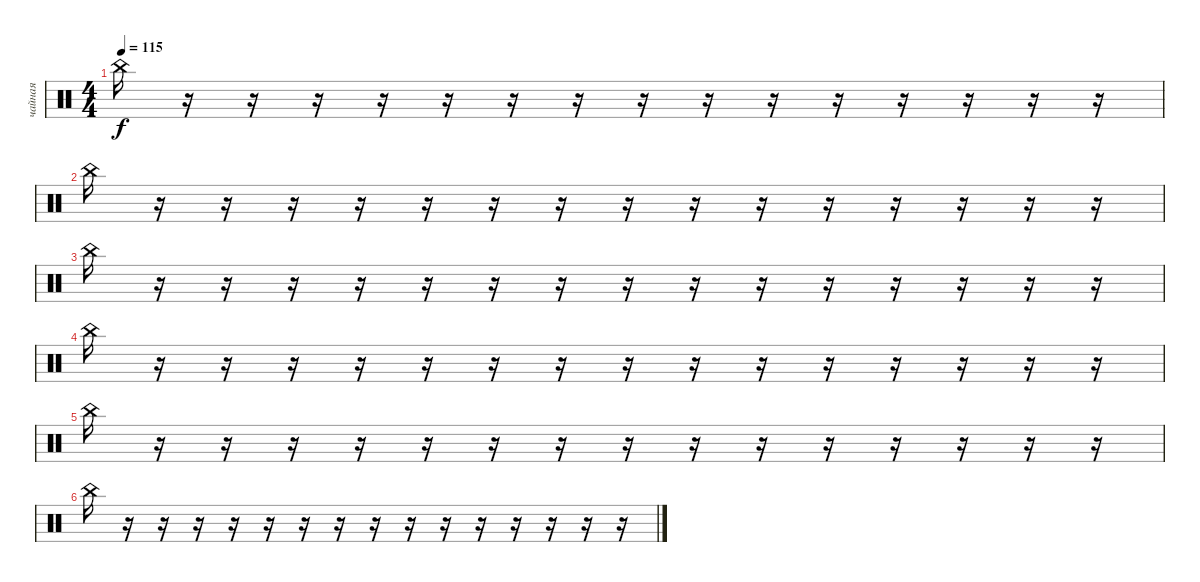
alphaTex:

\track ("чайная" "чайная") {mute instrument percussion}
\staff {score}
\articulation defaults
\ts (4 4)
\tempo 115
\clef neutral
\ks c "China (hit)".16{dy f}
r.16 r.16 r.16 r.16 r.16 r.16 r.16 r.16 r.16 r.16 r.16 r.16 r.16 r.16 r.16 |
"China (hit)".16 r.16 r.16 r.16 r.16 r.16 r.16 r.16 r.16 r.16 r.16 r.16 r.16 r.16 r.16 r.16 |
"China (hit)".16 r.16 r.16 r.16 r.16 r.16 r.16 r.16 r.16 r.16 r.16 r.16 r.16 r.16 r.16 r.16 |
"China (hit)".16 r.16 r.16 r.16 r.16 r.16 r.16 r.16 r.16 r.16 r.16 r.16 r.16 r.16 r.16 r.16 |
"China (hit)".16 r.16 r.16 r.16 r.16 r.16 r.16 r.16 r.16 r.16 r.16 r.16 r.16 r.16 r.16 r.16 |
"China (hit)".16 r.16 r.16 r.16 r.16 r.16 r.16 r.16 r.16 r.16 r.16 r.16 r.16 r.16 r.16 r.16
